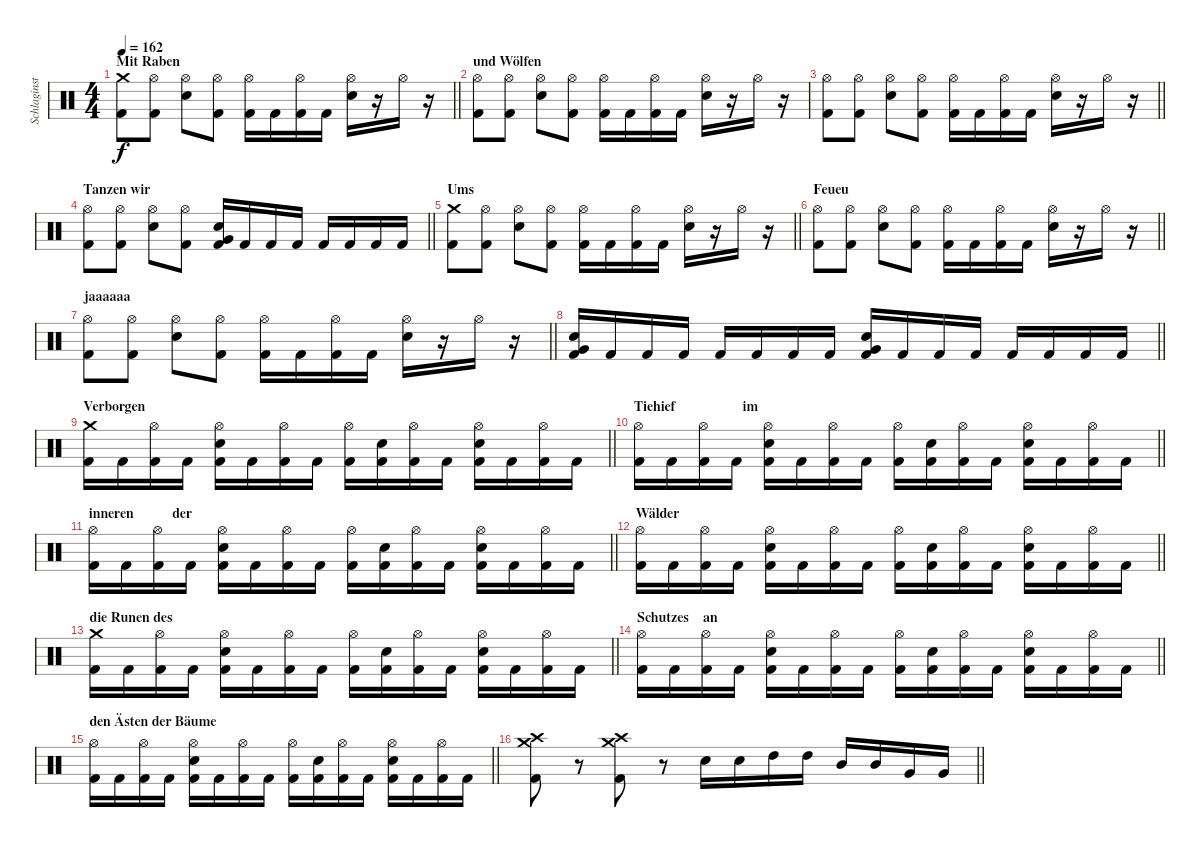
\track ("Schlaginstrumente - Auswahl" "Schlaginst") {instrument percussion}
\staff {score}
\articulation defaults
\ts (4 4)
\section ("" "Mit Raben ")
\tempo 162
\clef neutral
\barLineRight lightlight
\ks c
("Crash medium (hit)" "Kick (hit) 2").8{dy f} ("Hi-Hat (open)" "Kick (hit) 2").8 ("Hi-Hat (open)" "Electric Snare (hit)").8 ("Hi-Hat (open)" "Kick (hit) 2").8 ("Hi-Hat (open)" "Kick (hit) 2").16 "Kick (hit) 2".16 ("Hi-Hat (open)" "Kick (hit) 2").16 "Kick (hit) 2".16 ("Hi-Hat (open)" "Electric Snare (hit)").16 r.16 "Hi-Hat (open)".16 r.16 |
\section ("" "und Wölfen")
("Hi-Hat (open)" "Kick (hit) 2").8 ("Hi-Hat (open)" "Kick (hit) 2").8 ("Hi-Hat (open)" "Electric Snare (hit)").8 ("Hi-Hat (open)" "Kick (hit) 2").8 ("Hi-Hat (open)" "Kick (hit) 2").16 "Kick (hit) 2".16 ("Hi-Hat (open)" "Kick (hit) 2").16 "Kick (hit) 2".16 ("Hi-Hat (open)" "Electric Snare (hit)").16 r.16 "Hi-Hat (open)".16 r.16 |
\barLineRight lightlight
("Hi-Hat (open)" "Kick (hit) 2").8 ("Hi-Hat (open)" "Kick (hit) 2").8 ("Hi-Hat (open)" "Electric Snare (hit)").8 ("Hi-Hat (open)" "Kick (hit) 2").8 ("Hi-Hat (open)" "Kick (hit) 2").16 "Kick (hit) 2".16 ("Hi-Hat (open)" "Kick (hit) 2").16 "Kick (hit) 2".16 ("Hi-Hat (open)" "Electric Snare (hit)").16 r.16 "Hi-Hat (open)".16 r.16 |
\section ("" "Tanzen wir")
\barLineRight lightlight
("Hi-Hat (open)" "Kick (hit) 2").8 ("Hi-Hat (open)" "Kick (hit) 2").8 ("Hi-Hat (open)" "Electric Snare (hit)").8 ("Hi-Hat (open)" "Kick (hit) 2").8 ("Very Low Tom (hit)" "Electric Snare (hit)" "Kick (hit) 2").16 "Kick (hit) 2".16 "Kick (hit) 2".16 "Kick (hit) 2".16 "Kick (hit) 2".16 "Kick (hit) 2".16 "Kick (hit) 2".16 "Kick (hit) 2".16 |
\section ("" "Ums ")
\barLineRight lightlight
("Crash medium (hit)" "Kick (hit) 2").8 ("Hi-Hat (open)" "Kick (hit) 2").8 ("Hi-Hat (open)" "Electric Snare (hit)").8 ("Hi-Hat (open)" "Kick (hit) 2").8 ("Hi-Hat (open)" "Kick (hit) 2").16 "Kick (hit) 2".16 ("Hi-Hat (open)" "Kick (hit) 2").16 "Kick (hit) 2".16 ("Hi-Hat (open)" "Electric Snare (hit)").16 r.16 "Hi-Hat (open)".16 r.16 |
\section ("" "Feueu")
\barLineRight lightlight
("Hi-Hat (open)" "Kick (hit) 2").8 ("Hi-Hat (open)" "Kick (hit) 2").8 ("Hi-Hat (open)" "Electric Snare (hit)").8 ("Hi-Hat (open)" "Kick (hit) 2").8 ("Hi-Hat (open)" "Kick (hit) 2").16 "Kick (hit) 2".16 ("Hi-Hat (open)" "Kick (hit) 2").16 "Kick (hit) 2".16 ("Hi-Hat (open)" "Electric Snare (hit)").16 r.16 "Hi-Hat (open)".16 r.16 |
\section ("" "jaaaaaa")
\barLineRight lightlight
("Hi-Hat (open)" "Kick (hit) 2").8 ("Hi-Hat (open)" "Kick (hit) 2").8 ("Hi-Hat (open)" "Electric Snare (hit)").8 ("Hi-Hat (open)" "Kick (hit) 2").8 ("Hi-Hat (open)" "Kick (hit) 2").16 "Kick (hit) 2".16 ("Hi-Hat (open)" "Kick (hit) 2").16 "Kick (hit) 2".16 ("Hi-Hat (open)" "Electric Snare (hit)").16 r.16 "Hi-Hat (open)".16 r.16 |
\barLineRight lightlight
("Very Low Tom (hit)" "Electric Snare (hit)" "Kick (hit) 2").16 "Kick (hit) 2".16 "Kick (hit) 2".16 "Kick (hit) 2".16 "Kick (hit) 2".16 "Kick (hit) 2".16 "Kick (hit) 2".16 "Kick (hit) 2".16 ("Very Low Tom (hit)" "Electric Snare (hit)" "Kick (hit) 2").16 "Kick (hit) 2".16 "Kick (hit) 2".16 "Kick (hit) 2".16 "Kick (hit) 2".16 "Kick (hit) 2".16 "Kick (hit) 2".16 "Kick (hit) 2".16 |
\section ("" "Verborgen")
\barLineRight lightlight
("Crash medium (hit)" "Kick (hit) 2").16 "Kick (hit) 2".16 ("Hi-Hat (open)" "Kick (hit) 2").16 "Kick (hit) 2".16 ("Hi-Hat (open)" "Electric Snare (hit)" "Kick (hit) 2").16 "Kick (hit) 2".16 ("Hi-Hat (open)" "Kick (hit) 2").16 "Kick (hit) 2".16 ("Hi-Hat (open)" "Kick (hit) 2").16 ("Electric Snare (hit)" "Kick (hit) 2").16 ("Hi-Hat (open)" "Kick (hit) 2").16 "Kick (hit) 2".16 ("Hi-Hat (open)" "Electric Snare (hit)" "Kick (hit) 2").16 "Kick (hit) 2".16 ("Hi-Hat (open)" "Kick (hit) 2").16 "Kick (hit) 2".16 |
\section ("" "Tiehief                   im")
\barLineRight lightlight
("Hi-Hat (open)" "Kick (hit) 2").16 "Kick (hit) 2".16 ("Hi-Hat (open)" "Kick (hit) 2").16 "Kick (hit) 2".16 ("Hi-Hat (open)" "Electric Snare (hit)" "Kick (hit) 2").16 "Kick (hit) 2".16 ("Hi-Hat (open)" "Kick (hit) 2").16 "Kick (hit) 2".16 ("Hi-Hat (open)" "Kick (hit) 2").16 ("Electric Snare (hit)" "Kick (hit) 2").16 ("Hi-Hat (open)" "Kick (hit) 2").16 "Kick (hit) 2".16 ("Hi-Hat (open)" "Electric Snare (hit)" "Kick (hit) 2").16 "Kick (hit) 2".16 ("Hi-Hat (open)" "Kick (hit) 2").16 "Kick (hit) 2".16 |
\section ("" "inneren           der")
\barLineRight lightlight
("Hi-Hat (open)" "Kick (hit) 2").16 "Kick (hit) 2".16 ("Hi-Hat (open)" "Kick (hit) 2").16 "Kick (hit) 2".16 ("Hi-Hat (open)" "Electric Snare (hit)" "Kick (hit) 2").16 "Kick (hit) 2".16 ("Hi-Hat (open)" "Kick (hit) 2").16 "Kick (hit) 2".16 ("Hi-Hat (open)" "Kick (hit) 2").16 ("Electric Snare (hit)" "Kick (hit) 2").16 ("Hi-Hat (open)" "Kick (hit) 2").16 "Kick (hit) 2".16 ("Hi-Hat (open)" "Electric Snare (hit)" "Kick (hit) 2").16 "Kick (hit) 2".16 ("Hi-Hat (open)" "Kick (hit) 2").16 "Kick (hit) 2".16 |
\section ("" "Wälder")
\barLineRight lightlight
("Hi-Hat (open)" "Kick (hit) 2").16 "Kick (hit) 2".16 ("Hi-Hat (open)" "Kick (hit) 2").16 "Kick (hit) 2".16 ("Hi-Hat (open)" "Electric Snare (hit)" "Kick (hit) 2").16 "Kick (hit) 2".16 ("Hi-Hat (open)" "Kick (hit) 2").16 "Kick (hit) 2".16 ("Hi-Hat (open)" "Kick (hit) 2").16 ("Electric Snare (hit)" "Kick (hit) 2").16 ("Hi-Hat (open)" "Kick (hit) 2").16 "Kick (hit) 2".16 ("Hi-Hat (open)" "Electric Snare (hit)" "Kick (hit) 2").16 "Kick (hit) 2".16 ("Hi-Hat (open)" "Kick (hit) 2").16 "Kick (hit) 2".16 |
\section ("" "die Runen des ")
\barLineRight lightlight
("Crash medium (hit)" "Kick (hit) 2").16 "Kick (hit) 2".16 ("Hi-Hat (open)" "Kick (hit) 2").16 "Kick (hit) 2".16 ("Hi-Hat (open)" "Electric Snare (hit)" "Kick (hit) 2").16 "Kick (hit) 2".16 ("Hi-Hat (open)" "Kick (hit) 2").16 "Kick (hit) 2".16 ("Hi-Hat (open)" "Kick (hit) 2").16 ("Electric Snare (hit)" "Kick (hit) 2").16 ("Hi-Hat (open)" "Kick (hit) 2").16 "Kick (hit) 2".16 ("Hi-Hat (open)" "Electric Snare (hit)" "Kick (hit) 2").16 "Kick (hit) 2".16 ("Hi-Hat (open)" "Kick (hit) 2").16 "Kick (hit) 2".16 |
\section ("" "Schutzes    an")
\barLineRight lightlight
("Hi-Hat (open)" "Kick (hit) 2").16 "Kick (hit) 2".16 ("Hi-Hat (open)" "Kick (hit) 2").16 "Kick (hit) 2".16 ("Hi-Hat (open)" "Electric Snare (hit)" "Kick (hit) 2").16 "Kick (hit) 2".16 ("Hi-Hat (open)" "Kick (hit) 2").16 "Kick (hit) 2".16 ("Hi-Hat (open)" "Kick (hit) 2").16 ("Electric Snare (hit)" "Kick (hit) 2").16 ("Hi-Hat (open)" "Kick (hit) 2").16 "Kick (hit) 2".16 ("Hi-Hat (open)" "Electric Snare (hit)" "Kick (hit) 2").16 "Kick (hit) 2".16 ("Hi-Hat (open)" "Kick (hit) 2").16 "Kick (hit) 2".16 |
\section ("" "den Ästen der Bäume")
\barLineRight lightlight
("Hi-Hat (open)" "Kick (hit) 2").16 "Kick (hit) 2".16 ("Hi-Hat (open)" "Kick (hit) 2").16 "Kick (hit) 2".16 ("Hi-Hat (open)" "Electric Snare (hit)" "Kick (hit) 2").16 "Kick (hit) 2".16 ("Hi-Hat (open)" "Kick (hit) 2").16 "Kick (hit) 2".16 ("Hi-Hat (open)" "Kick (hit) 2").16 ("Electric Snare (hit)" "Kick (hit) 2").16 ("Hi-Hat (open)" "Kick (hit) 2").16 "Kick (hit) 2".16 ("Hi-Hat (open)" "Electric Snare (hit)" "Kick (hit) 2").16 "Kick (hit) 2".16 ("Hi-Hat (open)" "Kick (hit) 2").16 "Kick (hit) 2".16 |
\barLineRight lightlight
("Crash medium (hit)" "Crash high (hit)" "Kick (hit) 2").8 r.8 ("Crash medium (hit)" "Crash high (hit)" "Kick (hit) 2").8 r.8 "Electric Snare (hit)".16 "Electric Snare (hit)".16 "High Tom (hit)".16 "High Tom (hit)".16 "Mid Tom (hit)".16 "Mid Tom (hit)".16 "Very Low Tom (hit)".16 "Very Low Tom (hit)".16
